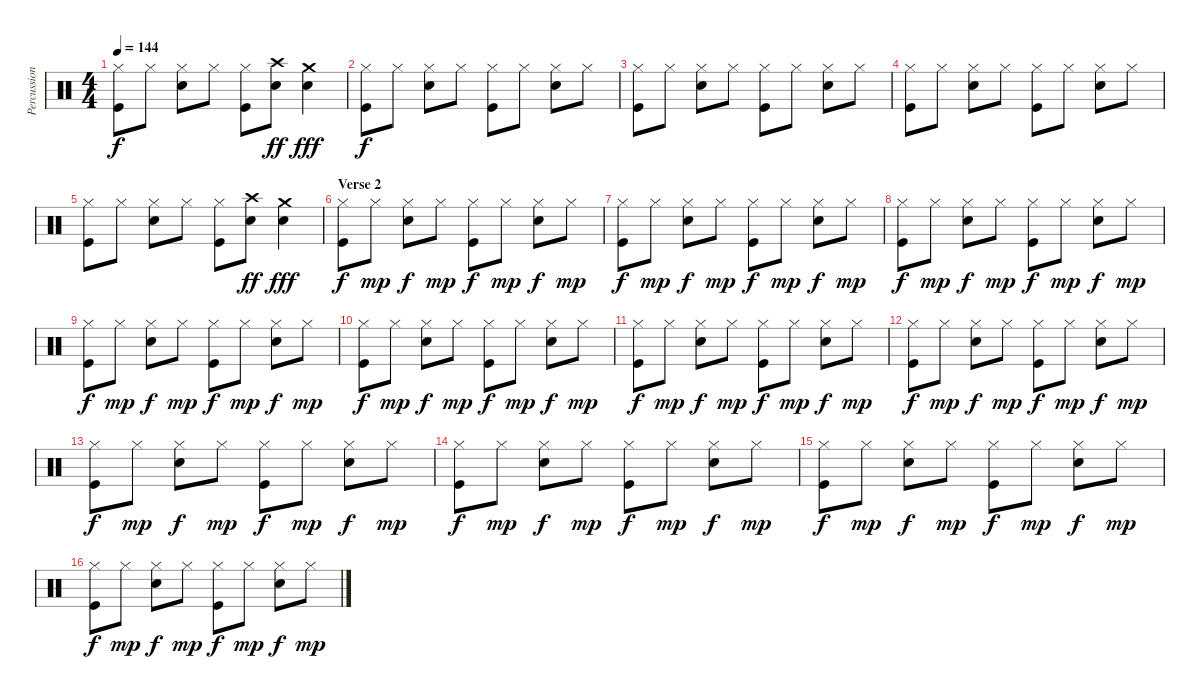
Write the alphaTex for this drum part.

\track ("Percussions" "Percussion") {instrument percussion}
\staff {score}
\articulation defaults
\ts (4 4)
\tempo 144
\clef neutral
\ks c
("Hi-Hat (closed)" "Kick (hit)").8{dy f} "Hi-Hat (closed)".8 ("Hi-Hat (closed)" "Snare (hit) 2").8 "Hi-Hat (closed)".8 ("Hi-Hat (closed)" "Kick (hit)").8 ("Crash high (hit)" "Snare (hit) 2").8{dy ff} ("Crash medium (hit)" "Snare (hit) 2").4{dy fff} |
("Hi-Hat (closed)" "Kick (hit)").8{dy f} "Hi-Hat (closed)".8 ("Hi-Hat (closed)" "Snare (hit) 2").8 "Hi-Hat (closed)".8 ("Hi-Hat (closed)" "Kick (hit)").8 "Hi-Hat (closed)".8 ("Hi-Hat (closed)" "Snare (hit) 2").8 "Hi-Hat (closed)".8 |
("Hi-Hat (closed)" "Kick (hit)").8 "Hi-Hat (closed)".8 ("Hi-Hat (closed)" "Snare (hit) 2").8 "Hi-Hat (closed)".8 ("Hi-Hat (closed)" "Kick (hit)").8 "Hi-Hat (closed)".8 ("Hi-Hat (closed)" "Snare (hit) 2").8 "Hi-Hat (closed)".8 |
("Hi-Hat (closed)" "Kick (hit)").8 "Hi-Hat (closed)".8 ("Hi-Hat (closed)" "Snare (hit) 2").8 "Hi-Hat (closed)".8 ("Hi-Hat (closed)" "Kick (hit)").8 "Hi-Hat (closed)".8 ("Hi-Hat (closed)" "Snare (hit) 2").8 "Hi-Hat (closed)".8 |
("Hi-Hat (closed)" "Kick (hit)").8 "Hi-Hat (closed)".8 ("Hi-Hat (closed)" "Snare (hit) 2").8 "Hi-Hat (closed)".8 ("Hi-Hat (closed)" "Kick (hit)").8 ("Crash high (hit)" "Snare (hit) 2").8{dy ff} ("Crash medium (hit)" "Snare (hit) 2").4{dy fff} |
\section ("" "Verse 2")
("Hi-Hat (closed)" "Kick (hit)").8{dy f} "Hi-Hat (closed)".8{dy mp} ("Hi-Hat (closed)" "Snare (hit) 2").8{dy f} "Hi-Hat (closed)".8{dy mp} ("Hi-Hat (closed)" "Kick (hit)").8{dy f} "Hi-Hat (closed)".8{dy mp} ("Hi-Hat (closed)" "Snare (hit) 2").8{dy f} "Hi-Hat (closed)".8{dy mp} |
("Hi-Hat (closed)" "Kick (hit)").8{dy f} "Hi-Hat (closed)".8{dy mp} ("Hi-Hat (closed)" "Snare (hit) 2").8{dy f} "Hi-Hat (closed)".8{dy mp} ("Hi-Hat (closed)" "Kick (hit)").8{dy f} "Hi-Hat (closed)".8{dy mp} ("Hi-Hat (closed)" "Snare (hit) 2").8{dy f} "Hi-Hat (closed)".8{dy mp} |
("Hi-Hat (closed)" "Kick (hit)").8{dy f} "Hi-Hat (closed)".8{dy mp} ("Hi-Hat (closed)" "Snare (hit) 2").8{dy f} "Hi-Hat (closed)".8{dy mp} ("Hi-Hat (closed)" "Kick (hit)").8{dy f} "Hi-Hat (closed)".8{dy mp} ("Hi-Hat (closed)" "Snare (hit) 2").8{dy f} "Hi-Hat (closed)".8{dy mp} |
("Hi-Hat (closed)" "Kick (hit)").8{dy f} "Hi-Hat (closed)".8{dy mp} ("Hi-Hat (closed)" "Snare (hit) 2").8{dy f} "Hi-Hat (closed)".8{dy mp} ("Hi-Hat (closed)" "Kick (hit)").8{dy f} "Hi-Hat (closed)".8{dy mp} ("Hi-Hat (closed)" "Snare (hit) 2").8{dy f} "Hi-Hat (closed)".8{dy mp} |
("Hi-Hat (closed)" "Kick (hit)").8{dy f} "Hi-Hat (closed)".8{dy mp} ("Hi-Hat (closed)" "Snare (hit) 2").8{dy f} "Hi-Hat (closed)".8{dy mp} ("Hi-Hat (closed)" "Kick (hit)").8{dy f} "Hi-Hat (closed)".8{dy mp} ("Hi-Hat (closed)" "Snare (hit) 2").8{dy f} "Hi-Hat (closed)".8{dy mp} |
("Hi-Hat (closed)" "Kick (hit)").8{dy f} "Hi-Hat (closed)".8{dy mp} ("Hi-Hat (closed)" "Snare (hit) 2").8{dy f} "Hi-Hat (closed)".8{dy mp} ("Hi-Hat (closed)" "Kick (hit)").8{dy f} "Hi-Hat (closed)".8{dy mp} ("Hi-Hat (closed)" "Snare (hit) 2").8{dy f} "Hi-Hat (closed)".8{dy mp} |
("Hi-Hat (closed)" "Kick (hit)").8{dy f} "Hi-Hat (closed)".8{dy mp} ("Hi-Hat (closed)" "Snare (hit) 2").8{dy f} "Hi-Hat (closed)".8{dy mp} ("Hi-Hat (closed)" "Kick (hit)").8{dy f} "Hi-Hat (closed)".8{dy mp} ("Hi-Hat (closed)" "Snare (hit) 2").8{dy f} "Hi-Hat (closed)".8{dy mp} |
("Hi-Hat (closed)" "Kick (hit)").8{dy f} "Hi-Hat (closed)".8{dy mp} ("Hi-Hat (closed)" "Snare (hit) 2").8{dy f} "Hi-Hat (closed)".8{dy mp} ("Hi-Hat (closed)" "Kick (hit)").8{dy f} "Hi-Hat (closed)".8{dy mp} ("Hi-Hat (closed)" "Snare (hit) 2").8{dy f} "Hi-Hat (closed)".8{dy mp} |
("Hi-Hat (closed)" "Kick (hit)").8{dy f} "Hi-Hat (closed)".8{dy mp} ("Hi-Hat (closed)" "Snare (hit) 2").8{dy f} "Hi-Hat (closed)".8{dy mp} ("Hi-Hat (closed)" "Kick (hit)").8{dy f} "Hi-Hat (closed)".8{dy mp} ("Hi-Hat (closed)" "Snare (hit) 2").8{dy f} "Hi-Hat (closed)".8{dy mp} |
("Hi-Hat (closed)" "Kick (hit)").8{dy f} "Hi-Hat (closed)".8{dy mp} ("Hi-Hat (closed)" "Snare (hit) 2").8{dy f} "Hi-Hat (closed)".8{dy mp} ("Hi-Hat (closed)" "Kick (hit)").8{dy f} "Hi-Hat (closed)".8{dy mp} ("Hi-Hat (closed)" "Snare (hit) 2").8{dy f} "Hi-Hat (closed)".8{dy mp} |
("Hi-Hat (closed)" "Kick (hit)").8{dy f} "Hi-Hat (closed)".8{dy mp} ("Hi-Hat (closed)" "Snare (hit) 2").8{dy f} "Hi-Hat (closed)".8{dy mp} ("Hi-Hat (closed)" "Kick (hit)").8{dy f} "Hi-Hat (closed)".8{dy mp} ("Hi-Hat (closed)" "Snare (hit) 2").8{dy f} "Hi-Hat (closed)".8{dy mp}
